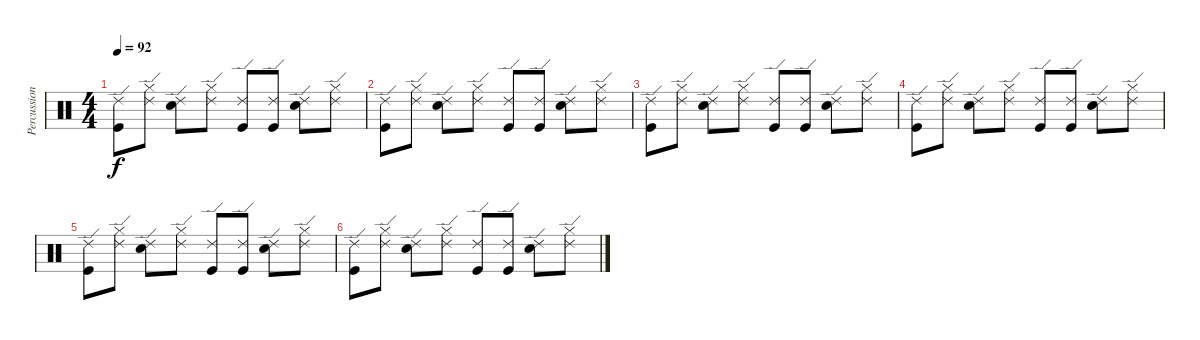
\track ("Percussion" "Percussion") {instrument percussion}
\staff {score}
\articulation defaults
\ts (4 4)
\tempo 92
\clef neutral
\ks c
("Kick (hit)" "Ride (edge) 2").8{dy f} ("Hi-Hat (closed)" "Ride (edge) 2").8 ("Snare (hit) 2" "Ride (edge) 2").8 ("Hi-Hat (closed)" "Ride (edge) 2").8 ("Kick (hit)" "Ride (edge) 2").8 ("Kick (hit)" "Ride (edge) 2").8 ("Snare (hit) 2" "Ride (edge) 2").8 ("Hi-Hat (closed)" "Ride (edge) 2").8 |
("Kick (hit)" "Ride (edge) 2").8 ("Hi-Hat (closed)" "Ride (edge) 2").8 ("Snare (hit) 2" "Ride (edge) 2").8 ("Hi-Hat (closed)" "Ride (edge) 2").8 ("Kick (hit)" "Ride (edge) 2").8 ("Kick (hit)" "Ride (edge) 2").8 ("Snare (hit) 2" "Ride (edge) 2").8 ("Hi-Hat (closed)" "Ride (edge) 2").8 |
("Kick (hit)" "Ride (edge) 2").8 ("Hi-Hat (closed)" "Ride (edge) 2").8 ("Snare (hit) 2" "Ride (edge) 2").8 ("Hi-Hat (closed)" "Ride (edge) 2").8 ("Kick (hit)" "Ride (edge) 2").8 ("Kick (hit)" "Ride (edge) 2").8 ("Snare (hit) 2" "Ride (edge) 2").8 ("Hi-Hat (closed)" "Ride (edge) 2").8 |
("Kick (hit)" "Ride (edge) 2").8 ("Hi-Hat (closed)" "Ride (edge) 2").8 ("Snare (hit) 2" "Ride (edge) 2").8 ("Hi-Hat (closed)" "Ride (edge) 2").8 ("Kick (hit)" "Ride (edge) 2").8 ("Kick (hit)" "Ride (edge) 2").8 ("Snare (hit) 2" "Ride (edge) 2").8 ("Hi-Hat (closed)" "Ride (edge) 2").8 |
("Kick (hit)" "Ride (edge) 2").8 ("Hi-Hat (closed)" "Ride (edge) 2").8 ("Snare (hit) 2" "Ride (edge) 2").8 ("Hi-Hat (closed)" "Ride (edge) 2").8 ("Kick (hit)" "Ride (edge) 2").8 ("Kick (hit)" "Ride (edge) 2").8 ("Snare (hit) 2" "Ride (edge) 2").8 ("Hi-Hat (closed)" "Ride (edge) 2").8 |
("Kick (hit)" "Ride (edge) 2").8 ("Hi-Hat (closed)" "Ride (edge) 2").8 ("Snare (hit) 2" "Ride (edge) 2").8 ("Hi-Hat (closed)" "Ride (edge) 2").8 ("Kick (hit)" "Ride (edge) 2").8 ("Kick (hit)" "Ride (edge) 2").8 ("Snare (hit) 2" "Ride (edge) 2").8 ("Hi-Hat (closed)" "Ride (edge) 2").8
